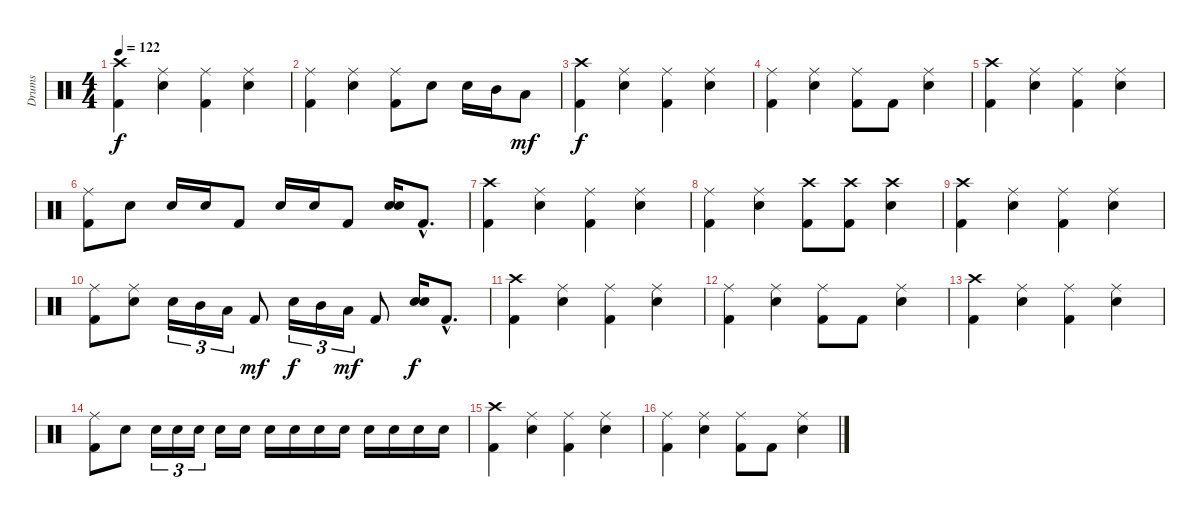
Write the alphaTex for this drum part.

\track ("Drums" "Drums") {instrument percussion}
\staff {score}
\articulation defaults
\ts (4 4)
\tempo 122
\clef neutral
\ks c
("Kick (hit) 2" "Crash high (hit)").4{dy f} ("Electric Snare (hit)" "Ride (middle)").4 ("Kick (hit) 2" "Ride (middle)").4 ("Electric Snare (hit)" "Ride (middle)").4 |
("Kick (hit) 2" "Ride (middle)").4 ("Electric Snare (hit)" "Ride (middle)").4 ("Kick (hit) 2" "Ride (middle)").8 "Electric Snare (hit)".8 "Electric Snare (hit)".16 "Mid Tom (hit)".16 "Low Tom (hit)".8{dy mf} |
("Kick (hit) 2" "Crash high (hit)").4{dy f} ("Electric Snare (hit)" "Ride (middle)").4 ("Kick (hit) 2" "Ride (middle)").4 ("Electric Snare (hit)" "Ride (middle)").4 |
("Kick (hit) 2" "Ride (middle)").4 ("Electric Snare (hit)" "Ride (middle)").4 ("Kick (hit) 2" "Ride (middle)").8 "Kick (hit) 2".8 ("Electric Snare (hit)" "Ride (middle)").4 |
("Kick (hit) 2" "Crash high (hit)").4 ("Electric Snare (hit)" "Ride (middle)").4 ("Kick (hit) 2" "Ride (middle)").4 ("Electric Snare (hit)" "Ride (middle)").4 |
("Kick (hit) 2" "Ride (middle)").8 "Electric Snare (hit)".8 "Electric Snare (hit)".16 "Electric Snare (hit)".16 "Kick (hit) 2".8 "Electric Snare (hit)".16 "Electric Snare (hit)".16 "Kick (hit) 2".8 ("Electric Snare (hit)" "Electric Snare (hit)").16 "Kick (hit) 2"{hac}.8{d} |
("Kick (hit) 2" "Crash high (hit)").4 ("Electric Snare (hit)" "Ride (middle)").4 ("Kick (hit) 2" "Ride (middle)").4 ("Electric Snare (hit)" "Ride (middle)").4 |
("Kick (hit) 2" "Ride (middle)").4 ("Electric Snare (hit)" "Ride (middle)").4 ("Kick (hit) 2" "Crash high (hit)").8 ("Crash high (hit)" "Kick (hit) 2").8 ("Electric Snare (hit)" "Crash high (hit)").4 |
("Kick (hit) 2" "Crash high (hit)").4 ("Electric Snare (hit)" "Ride (middle)").4 ("Kick (hit) 2" "Ride (middle)").4 ("Electric Snare (hit)" "Ride (middle)").4 |
("Kick (hit) 2" "Ride (middle)").8 ("Ride (middle)" "Electric Snare (hit)").8 "Electric Snare (hit)".16{tu (3 2)} "Mid Tom (hit)".16{tu (3 2)} "Low Tom (hit)".16{tu (3 2)} "Kick (hit) 2".8{dy mf} "Electric Snare (hit)".16{tu (3 2) dy f} "Mid Tom (hit)".16{tu (3 2)} "Low Tom (hit)".16{tu (3 2) dy mf} "Kick (hit) 2".8 ("Electric Snare (hit)" "Electric Snare (hit)").16{dy f} "Kick (hit) 2"{hac}.8{d} |
("Kick (hit) 2" "Crash high (hit)").4{volume 13} ("Electric Snare (hit)" "Ride (middle)").4 ("Kick (hit) 2" "Ride (middle)").4 ("Electric Snare (hit)" "Ride (middle)").4 |
("Kick (hit) 2" "Ride (middle)").4{volume 10} ("Electric Snare (hit)" "Ride (middle)").4 ("Kick (hit) 2" "Ride (middle)").8 "Kick (hit) 2".8 ("Electric Snare (hit)" "Ride (middle)").4 |
("Kick (hit) 2" "Crash high (hit)").4{volume 8} ("Electric Snare (hit)" "Ride (middle)").4 ("Kick (hit) 2" "Ride (middle)").4 ("Electric Snare (hit)" "Ride (middle)").4 |
("Kick (hit) 2" "Ride (middle)").8{volume 6} "Electric Snare (hit)".8 "Electric Snare (hit)".16{tu (3 2)} "Electric Snare (hit)".16{tu (3 2)} "Electric Snare (hit)".16{tu (3 2)} "Electric Snare (hit)".16 "Electric Snare (hit)".16 "Electric Snare (hit)".16 "Electric Snare (hit)".16 "Electric Snare (hit)".16 "Electric Snare (hit)".16 "Electric Snare (hit)".16 "Electric Snare (hit)".16 "Electric Snare (hit)".16 "Electric Snare (hit)".16 |
("Kick (hit) 2" "Crash high (hit)").4{volume 4} ("Electric Snare (hit)" "Ride (middle)").4 ("Kick (hit) 2" "Ride (middle)").4 ("Electric Snare (hit)" "Ride (middle)").4 |
("Kick (hit) 2" "Ride (middle)").4{volume 0} ("Electric Snare (hit)" "Ride (middle)").4 ("Kick (hit) 2" "Ride (middle)").8 "Kick (hit) 2".8 ("Electric Snare (hit)" "Ride (middle)").4
